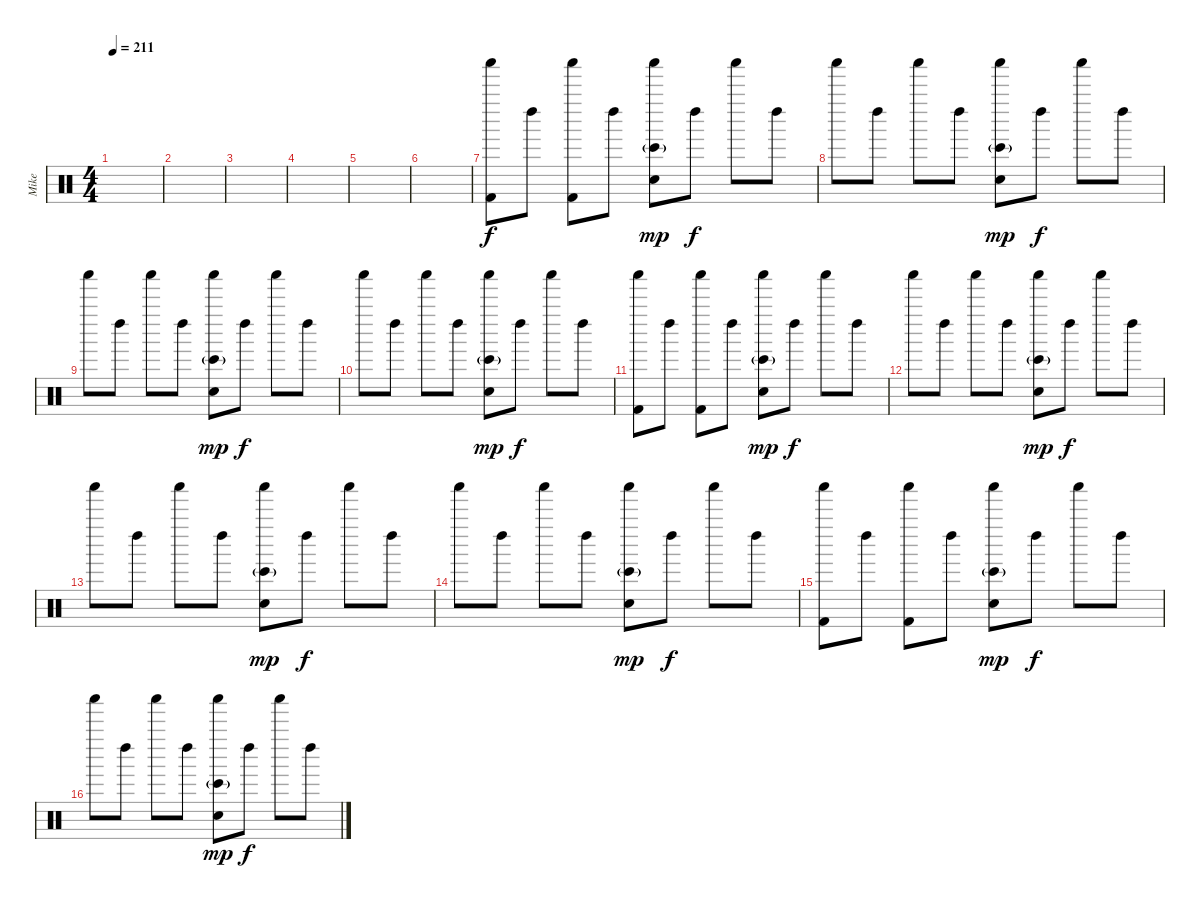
\track ("Mike" "Mike") {instrument percussion}
\staff {score}
\articulation defaults
\ts (4 4)
\tempo 211
\clef neutral
\ks c
|
|
|
|
|
|
("Shaker (hit)" "Kick (hit) 2").8 "Left Maraca (hit)".8 ("Shaker (hit)" "Kick (hit) 2").8 "Left Maraca (hit)".8 ("Shaker (hit)" "Bongo High (hit)"{g} "Electric Snare (hit)").8{dy mp} "Left Maraca (hit)".8{dy f} "Shaker (hit)".8 "Left Maraca (hit)".8 |
"Shaker (hit)".8 "Left Maraca (hit)".8 "Shaker (hit)".8 "Left Maraca (hit)".8 ("Shaker (hit)" "Bongo High (hit)"{g} "Electric Snare (hit)").8{dy mp} "Left Maraca (hit)".8{dy f} "Shaker (hit)".8 "Left Maraca (hit)".8 |
"Shaker (hit)".8 "Left Maraca (hit)".8 "Shaker (hit)".8 "Left Maraca (hit)".8 ("Shaker (hit)" "Bongo High (hit)"{g} "Electric Snare (hit)").8{dy mp} "Left Maraca (hit)".8{dy f} "Shaker (hit)".8 "Left Maraca (hit)".8 |
"Shaker (hit)".8 "Left Maraca (hit)".8 "Shaker (hit)".8 "Left Maraca (hit)".8 ("Shaker (hit)" "Bongo High (hit)"{g} "Electric Snare (hit)").8{dy mp} "Left Maraca (hit)".8{dy f} "Shaker (hit)".8 "Left Maraca (hit)".8 |
("Shaker (hit)" "Kick (hit) 2").8 "Left Maraca (hit)".8 ("Shaker (hit)" "Kick (hit) 2").8 "Left Maraca (hit)".8 ("Shaker (hit)" "Bongo High (hit)"{g} "Electric Snare (hit)").8{dy mp} "Left Maraca (hit)".8{dy f} "Shaker (hit)".8 "Left Maraca (hit)".8 |
"Shaker (hit)".8 "Left Maraca (hit)".8 "Shaker (hit)".8 "Left Maraca (hit)".8 ("Shaker (hit)" "Bongo High (hit)"{g} "Electric Snare (hit)").8{dy mp} "Left Maraca (hit)".8{dy f} "Shaker (hit)".8 "Left Maraca (hit)".8 |
"Shaker (hit)".8 "Left Maraca (hit)".8 "Shaker (hit)".8 "Left Maraca (hit)".8 ("Shaker (hit)" "Bongo High (hit)"{g} "Electric Snare (hit)").8{dy mp} "Left Maraca (hit)".8{dy f} "Shaker (hit)".8 "Left Maraca (hit)".8 |
"Shaker (hit)".8 "Left Maraca (hit)".8 "Shaker (hit)".8 "Left Maraca (hit)".8 ("Shaker (hit)" "Bongo High (hit)"{g} "Electric Snare (hit)").8{dy mp} "Left Maraca (hit)".8{dy f} "Shaker (hit)".8 "Left Maraca (hit)".8 |
("Shaker (hit)" "Kick (hit) 2").8 "Left Maraca (hit)".8 ("Shaker (hit)" "Kick (hit) 2").8 "Left Maraca (hit)".8 ("Shaker (hit)" "Bongo High (hit)"{g} "Electric Snare (hit)").8{dy mp} "Left Maraca (hit)".8{dy f} "Shaker (hit)".8 "Left Maraca (hit)".8 |
"Shaker (hit)".8 "Left Maraca (hit)".8 "Shaker (hit)".8 "Left Maraca (hit)".8 ("Shaker (hit)" "Bongo High (hit)"{g} "Electric Snare (hit)").8{dy mp} "Left Maraca (hit)".8{dy f} "Shaker (hit)".8 "Left Maraca (hit)".8
